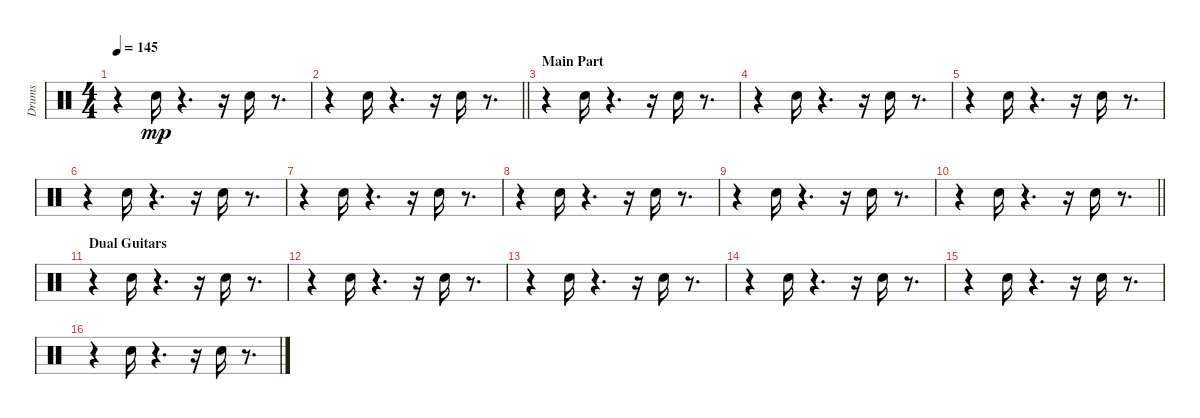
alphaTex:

\track ("Drums" "Drums") {instrument percussion}
\staff {score}
\articulation defaults
\ts (4 4)
\tempo 145
\clef neutral
\ks c
r.4{dy mp} "Snare (hit) 2".16 r.4{d} r.16 "Snare (hit) 2".16 r.8{d} |
\barLineRight lightlight
r.4 "Snare (hit) 2".16 r.4{d} r.16 "Snare (hit) 2".16 r.8{d} |
\section ("" "Main Part")
r.4 "Snare (hit) 2".16 r.4{d} r.16 "Snare (hit) 2".16 r.8{d} |
r.4 "Snare (hit) 2".16 r.4{d} r.16 "Snare (hit) 2".16 r.8{d} |
r.4 "Snare (hit) 2".16 r.4{d} r.16 "Snare (hit) 2".16 r.8{d} |
r.4 "Snare (hit) 2".16 r.4{d} r.16 "Snare (hit) 2".16 r.8{d} |
r.4 "Snare (hit) 2".16 r.4{d} r.16 "Snare (hit) 2".16 r.8{d} |
r.4 "Snare (hit) 2".16 r.4{d} r.16 "Snare (hit) 2".16 r.8{d} |
r.4 "Snare (hit) 2".16 r.4{d} r.16 "Snare (hit) 2".16 r.8{d} |
\barLineRight lightlight
r.4 "Snare (hit) 2".16 r.4{d} r.16 "Snare (hit) 2".16 r.8{d} |
\section ("" "Dual Guitars")
r.4 "Snare (hit) 2".16 r.4{d} r.16 "Snare (hit) 2".16 r.8{d} |
r.4 "Snare (hit) 2".16 r.4{d} r.16 "Snare (hit) 2".16 r.8{d} |
r.4 "Snare (hit) 2".16 r.4{d} r.16 "Snare (hit) 2".16 r.8{d} |
r.4 "Snare (hit) 2".16 r.4{d} r.16 "Snare (hit) 2".16 r.8{d} |
r.4 "Snare (hit) 2".16 r.4{d} r.16 "Snare (hit) 2".16 r.8{d} |
r.4 "Snare (hit) 2".16 r.4{d} r.16 "Snare (hit) 2".16 r.8{d}
